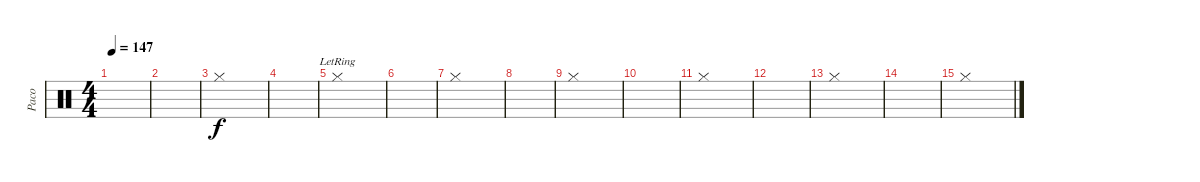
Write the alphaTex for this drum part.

\track ("Paco" "Paco") {instrument percussion}
\staff {score}
\articulation defaults
\ts (4 4)
\tempo 147
\clef neutral
\ks c
|
|
"Hi-Hat (closed)".1 |
|
"Hi-Hat (closed)"{lr}.1 |
|
"Hi-Hat (closed)".1 |
|
"Hi-Hat (closed)".1 |
|
"Hi-Hat (closed)".1 |
|
"Hi-Hat (closed)".1 |
|
"Hi-Hat (closed)".1
